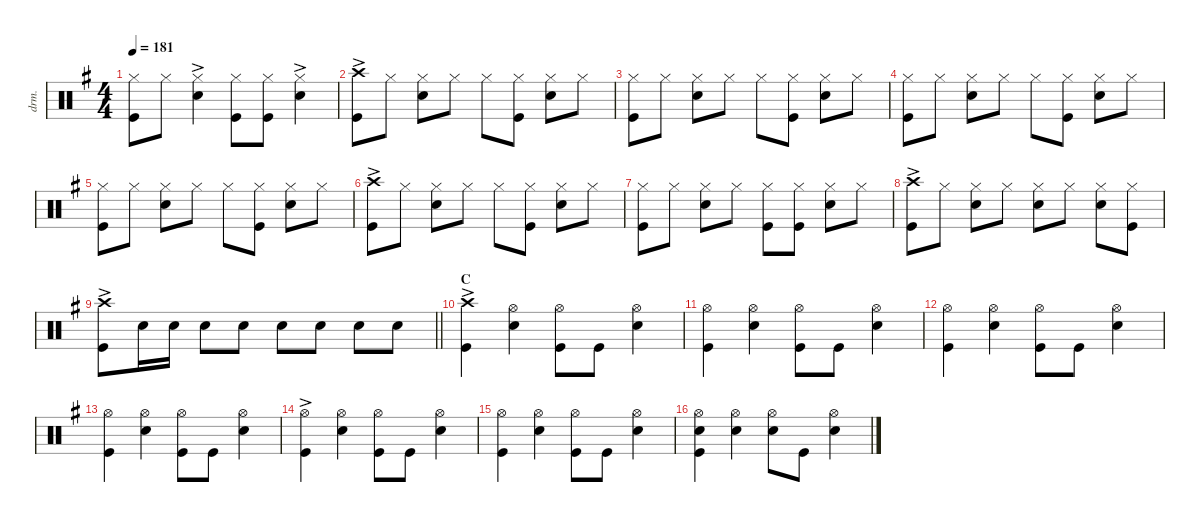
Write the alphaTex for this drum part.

\defaultSystemsLayout 4
\hideDynamics
\bracketExtendMode nobrackets
\track ("Drums" "drm.") {instrument percussion}
\staff {score}
\articulation defaults
\ts (4 4)
\tempo 181
\clef neutral
\ks g
("Hi-Hat (closed)"{acc forcenatural} "Kick (hit)"{acc forcenatural}).8{dy f} "Hi-Hat (closed)"{acc forcenatural}.8 ("Hi-Hat (closed)"{ac acc forcenatural} "Snare (hit) 2"{acc forcenatural}).4 ("Hi-Hat (closed)"{acc forcenatural} "Kick (hit)"{acc forcenatural}).8 ("Kick (hit)"{acc forcenatural} "Hi-Hat (closed)"{acc forcenatural}).8 ("Snare (hit) 2"{acc forcenatural} "Hi-Hat (closed)"{ac acc forcenatural}).4 |
("Crash high (hit)"{ac acc forcenatural} "Kick (hit)"{acc forcenatural}).8 "Hi-Hat (closed)"{acc forcenatural}.8 ("Snare (hit) 2"{acc forcenatural} "Hi-Hat (closed)"{acc forcenatural}).8 "Hi-Hat (closed)"{acc forcenatural}.8 "Hi-Hat (closed)"{acc forcenatural}.8 ("Hi-Hat (closed)"{acc forcenatural} "Kick (hit)"{acc forcenatural}).8 ("Snare (hit) 2"{acc forcenatural} "Hi-Hat (closed)"{acc forcenatural}).8 "Hi-Hat (closed)"{acc forcenatural}.8 |
("Hi-Hat (closed)"{acc forcenatural} "Kick (hit)"{acc forcenatural}).8 "Hi-Hat (closed)"{acc forcenatural}.8 ("Snare (hit) 2"{acc forcenatural} "Hi-Hat (closed)"{acc forcenatural}).8 "Hi-Hat (closed)"{acc forcenatural}.8 "Hi-Hat (closed)"{acc forcenatural}.8 ("Hi-Hat (closed)"{acc forcenatural} "Kick (hit)"{acc forcenatural}).8 ("Snare (hit) 2"{acc forcenatural} "Hi-Hat (closed)"{acc forcenatural}).8 "Hi-Hat (closed)"{acc forcenatural}.8 |
("Hi-Hat (closed)"{acc forcenatural} "Kick (hit)"{acc forcenatural}).8 "Hi-Hat (closed)"{acc forcenatural}.8 ("Snare (hit) 2"{acc forcenatural} "Hi-Hat (closed)"{acc forcenatural}).8 "Hi-Hat (closed)"{acc forcenatural}.8 "Hi-Hat (closed)"{acc forcenatural}.8 ("Hi-Hat (closed)"{acc forcenatural} "Kick (hit)"{acc forcenatural}).8 ("Snare (hit) 2"{acc forcenatural} "Hi-Hat (closed)"{acc forcenatural}).8 "Hi-Hat (closed)"{acc forcenatural}.8 |
("Hi-Hat (closed)"{acc forcenatural} "Kick (hit)"{acc forcenatural}).8 "Hi-Hat (closed)"{acc forcenatural}.8 ("Snare (hit) 2"{acc forcenatural} "Hi-Hat (closed)"{acc forcenatural}).8 "Hi-Hat (closed)"{acc forcenatural}.8 "Hi-Hat (closed)"{acc forcenatural}.8 ("Hi-Hat (closed)"{acc forcenatural} "Kick (hit)"{acc forcenatural}).8 ("Snare (hit) 2"{acc forcenatural} "Hi-Hat (closed)"{acc forcenatural}).8 "Hi-Hat (closed)"{acc forcenatural}.8 |
("Crash high (hit)"{ac acc forcenatural} "Kick (hit)"{acc forcenatural}).8 "Hi-Hat (closed)"{acc forcenatural}.8 ("Snare (hit) 2"{acc forcenatural} "Hi-Hat (closed)"{acc forcenatural}).8 "Hi-Hat (closed)"{acc forcenatural}.8 "Hi-Hat (closed)"{acc forcenatural}.8 ("Hi-Hat (closed)"{acc forcenatural} "Kick (hit)"{acc forcenatural}).8 ("Snare (hit) 2"{acc forcenatural} "Hi-Hat (closed)"{acc forcenatural}).8 "Hi-Hat (closed)"{acc forcenatural}.8 |
("Hi-Hat (closed)"{acc forcenatural} "Kick (hit)"{acc forcenatural}).8 "Hi-Hat (closed)"{acc forcenatural}.8 ("Hi-Hat (closed)"{acc forcenatural} "Snare (hit) 2"{acc forcenatural}).8 "Hi-Hat (closed)"{acc forcenatural}.8 ("Hi-Hat (closed)"{acc forcenatural} "Kick (hit)"{acc forcenatural}).8 ("Hi-Hat (closed)"{acc forcenatural} "Kick (hit)"{acc forcenatural}).8 ("Snare (hit) 2"{acc forcenatural} "Hi-Hat (closed)"{acc forcenatural}).8 "Hi-Hat (closed)"{acc forcenatural}.8 |
("Crash high (hit)"{ac acc forcenatural} "Kick (hit)"{acc forcenatural}).8 "Hi-Hat (closed)"{acc forcenatural}.8 ("Hi-Hat (closed)"{acc forcenatural} "Snare (hit) 2"{acc forcenatural}).8 "Hi-Hat (closed)"{acc forcenatural}.8 ("Hi-Hat (closed)"{acc forcenatural} "Snare (hit) 2"{acc forcenatural}).8 "Hi-Hat (closed)"{acc forcenatural}.8 ("Hi-Hat (closed)"{acc forcenatural} "Snare (hit) 2"{acc forcenatural}).8 ("Hi-Hat (closed)"{acc forcenatural} "Kick (hit)"{acc forcenatural}).8 |
\barLineRight lightlight
("Crash high (hit)"{ac acc forcenatural} "Kick (hit)"{acc forcenatural}).8 "Snare (hit) 2"{acc forcenatural}.16 "Snare (hit) 2"{acc forcenatural}.16 "Snare (hit) 2"{acc forcenatural}.8 "Snare (hit) 2"{acc forcenatural}.8 "Snare (hit) 2"{acc forcenatural}.8 "Snare (hit) 2"{acc forcenatural}.8 "Snare (hit) 2"{acc forcenatural}.8 "Snare (hit) 2"{acc forcenatural}.8 |
\section ("" "C")
("Kick (hit)"{acc forcenatural} "Crash high (hit)"{ac acc forcenatural}).4 ("Hi-Hat (open)"{acc forcenatural} "Snare (hit) 2"{acc forcenatural}).4 ("Kick (hit)"{acc forcenatural} "Hi-Hat (open)"{acc forcenatural}).8 "Kick (hit)"{acc forcenatural}.8 ("Snare (hit) 2"{acc forcenatural} "Hi-Hat (open)"{acc forcenatural}).4 |
("Kick (hit)"{acc forcenatural} "Hi-Hat (open)"{acc forcenatural}).4 ("Hi-Hat (open)"{acc forcenatural} "Snare (hit) 2"{acc forcenatural}).4 ("Kick (hit)"{acc forcenatural} "Hi-Hat (open)"{acc forcenatural}).8 "Kick (hit)"{acc forcenatural}.8 ("Snare (hit) 2"{acc forcenatural} "Hi-Hat (open)"{acc forcenatural}).4 |
("Kick (hit)"{acc forcenatural} "Hi-Hat (open)"{acc forcenatural}).4 ("Hi-Hat (open)"{acc forcenatural} "Snare (hit) 2"{acc forcenatural}).4 ("Kick (hit)"{acc forcenatural} "Hi-Hat (open)"{acc forcenatural}).8 "Kick (hit)"{acc forcenatural}.8 ("Snare (hit) 2"{acc forcenatural} "Hi-Hat (open)"{acc forcenatural}).4 |
("Kick (hit)"{acc forcenatural} "Hi-Hat (open)"{acc forcenatural}).4 ("Hi-Hat (open)"{acc forcenatural} "Snare (hit) 2"{acc forcenatural}).4 ("Kick (hit)"{acc forcenatural} "Hi-Hat (open)"{acc forcenatural}).8 "Kick (hit)"{acc forcenatural}.8 ("Snare (hit) 2"{acc forcenatural} "Hi-Hat (open)"{acc forcenatural}).4 |
("Kick (hit)"{acc forcenatural} "Hi-Hat (open)"{ac acc forcenatural}).4 ("Hi-Hat (open)"{acc forcenatural} "Snare (hit) 2"{acc forcenatural}).4 ("Kick (hit)"{acc forcenatural} "Hi-Hat (open)"{acc forcenatural}).8 "Kick (hit)"{acc forcenatural}.8 ("Snare (hit) 2"{acc forcenatural} "Hi-Hat (open)"{acc forcenatural}).4 |
("Kick (hit)"{acc forcenatural} "Hi-Hat (open)"{acc forcenatural}).4 ("Hi-Hat (open)"{acc forcenatural} "Snare (hit) 2"{acc forcenatural}).4 ("Kick (hit)"{acc forcenatural} "Hi-Hat (open)"{acc forcenatural}).8 "Kick (hit)"{acc forcenatural}.8 ("Snare (hit) 2"{acc forcenatural} "Hi-Hat (open)"{acc forcenatural}).4 |
("Kick (hit)"{acc forcenatural} "Hi-Hat (open)"{acc forcenatural} "Snare (hit) 2"{acc forcenatural}).4 ("Hi-Hat (open)"{acc forcenatural} "Snare (hit) 2"{acc forcenatural}).4 ("Hi-Hat (open)"{acc forcenatural} "Snare (hit) 2"{acc forcenatural}).8 "Kick (hit)"{acc forcenatural}.8 ("Snare (hit) 2"{acc forcenatural} "Hi-Hat (open)"{acc forcenatural}).4
